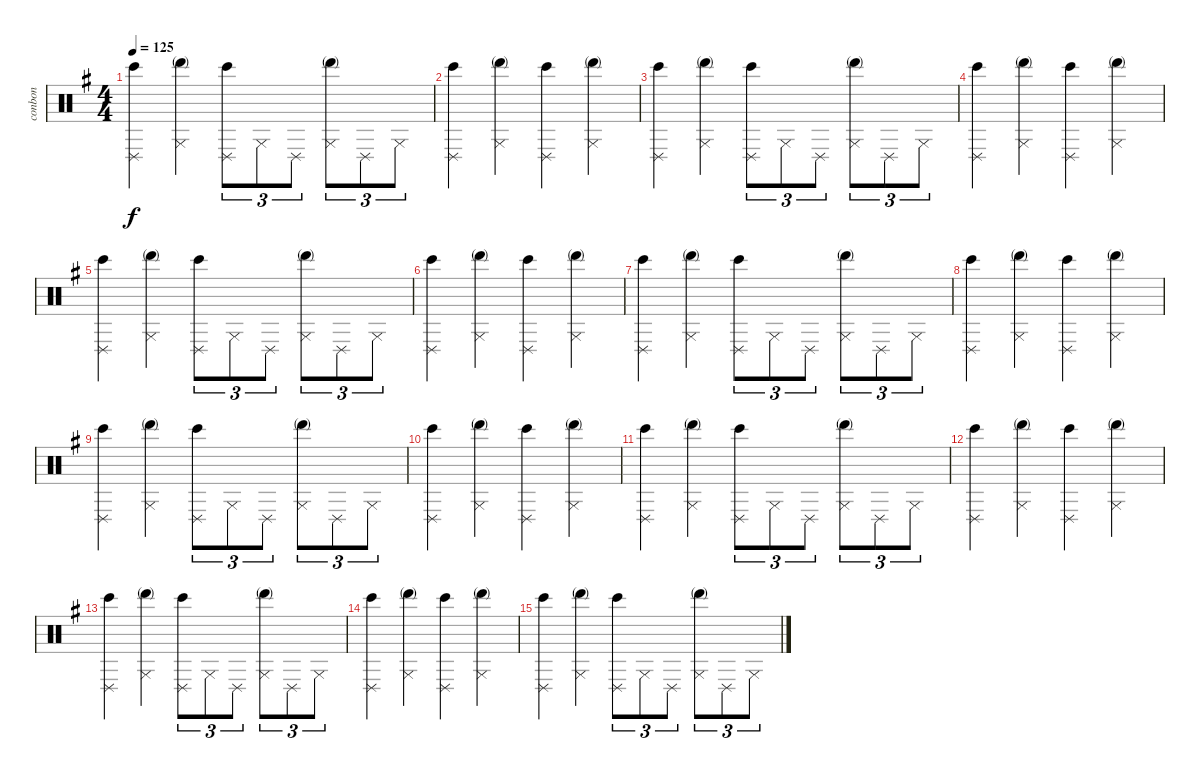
\defaultSystemsLayout 4
\bracketExtendMode groupsimilarinstruments
\otherSystemsTrackNameOrientation horizontal
\track ("Bongos N Congas" "conbon") {instrument percussion}
\staff {score}
\articulation defaults
\ts (4 4)
\tempo 125
\clef neutral
\scale
0.333333
\ks g
("Conga low (slap)"{acc forcenatural} "Bongo High (hit)"{acc forcenatural}).4{dy f beam Down} ("Conga high (slap)"{acc forcenatural} "Hand (mute)"{acc forcenatural}).4{beam Down} ("Conga low (slap)"{acc forcenatural} "Bongo High (hit)"{acc forcenatural}).8{tu (3 2) beam Down} "Conga high (slap)"{acc forcenatural}.8{tu (3 2) beam Down} "Conga low (slap)"{acc forcenatural}.8{tu (3 2) beam Down} ("Conga high (slap)"{acc forcenatural} "Hand (mute)"{acc forcenatural}).8{tu (3 2) beam Down} "Conga low (slap)"{acc forcenatural}.8{tu (3 2) beam Down} "Conga high (slap)"{acc forcenatural}.8{tu (3 2) beam Down} |
\scale
0.333333 ("Conga low (slap)"{acc forcenatural} "Bongo High (hit)"{acc forcenatural}).4{beam Down} ("Conga high (slap)"{acc forcenatural} "Hand (mute)"{acc forcenatural}).4{beam Down} ("Conga low (slap)"{acc forcenatural} "Bongo High (hit)"{acc forcenatural}).4{beam Down} ("Conga high (slap)"{acc forcenatural} "Hand (mute)"{acc forcenatural}).4{beam Down} |
\scale
0.333333 ("Conga low (slap)"{acc forcenatural} "Bongo High (hit)"{acc forcenatural}).4{beam Down} ("Conga high (slap)"{acc forcenatural} "Hand (mute)"{acc forcenatural}).4{beam Down} ("Conga low (slap)"{acc forcenatural} "Bongo High (hit)"{acc forcenatural}).8{tu (3 2) beam Down} "Conga high (slap)"{acc forcenatural}.8{tu (3 2) beam Down} "Conga low (slap)"{acc forcenatural}.8{tu (3 2) beam Down} ("Conga high (slap)"{acc forcenatural} "Hand (mute)"{acc forcenatural}).8{tu (3 2) beam Down} "Conga low (slap)"{acc forcenatural}.8{tu (3 2) beam Down} "Conga high (slap)"{acc forcenatural}.8{tu (3 2) beam Down} |
\scale
0.333333 ("Conga low (slap)"{acc forcenatural} "Bongo High (hit)"{acc forcenatural}).4{beam Down} ("Conga high (slap)"{acc forcenatural} "Hand (mute)"{acc forcenatural}).4{beam Down} ("Conga low (slap)"{acc forcenatural} "Bongo High (hit)"{acc forcenatural}).4{beam Down} ("Conga high (slap)"{acc forcenatural} "Hand (mute)"{acc forcenatural}).4{beam Down} |
\scale
0.333333 ("Conga low (slap)"{acc forcenatural} "Bongo High (hit)"{acc forcenatural}).4{beam Down} ("Conga high (slap)"{acc forcenatural} "Hand (mute)"{acc forcenatural}).4{beam Down} ("Conga low (slap)"{acc forcenatural} "Bongo High (hit)"{acc forcenatural}).8{tu (3 2) beam Down} "Conga high (slap)"{acc forcenatural}.8{tu (3 2) beam Down} "Conga low (slap)"{acc forcenatural}.8{tu (3 2) beam Down} ("Conga high (slap)"{acc forcenatural} "Hand (mute)"{acc forcenatural}).8{tu (3 2) beam Down} "Conga low (slap)"{acc forcenatural}.8{tu (3 2) beam Down} "Conga high (slap)"{acc forcenatural}.8{tu (3 2) beam Down} |
\scale
0.333333 ("Conga low (slap)"{acc forcenatural} "Bongo High (hit)"{acc forcenatural}).4{beam Down} ("Conga high (slap)"{acc forcenatural} "Hand (mute)"{acc forcenatural}).4{beam Down} ("Conga low (slap)"{acc forcenatural} "Bongo High (hit)"{acc forcenatural}).4{beam Down} ("Conga high (slap)"{acc forcenatural} "Hand (mute)"{acc forcenatural}).4{beam Down} |
\scale
0.333333 ("Conga low (slap)"{acc forcenatural} "Bongo High (hit)"{acc forcenatural}).4{beam Down} ("Conga high (slap)"{acc forcenatural} "Hand (mute)"{acc forcenatural}).4{beam Down} ("Conga low (slap)"{acc forcenatural} "Bongo High (hit)"{acc forcenatural}).8{tu (3 2) beam Down} "Conga high (slap)"{acc forcenatural}.8{tu (3 2) beam Down} "Conga low (slap)"{acc forcenatural}.8{tu (3 2) beam Down} ("Conga high (slap)"{acc forcenatural} "Hand (mute)"{acc forcenatural}).8{tu (3 2) beam Down} "Conga low (slap)"{acc forcenatural}.8{tu (3 2) beam Down} "Conga high (slap)"{acc forcenatural}.8{tu (3 2) beam Down} |
\scale
0.333333 ("Conga low (slap)"{acc forcenatural} "Bongo High (hit)"{acc forcenatural}).4{beam Down} ("Conga high (slap)"{acc forcenatural} "Hand (mute)"{acc forcenatural}).4{beam Down} ("Conga low (slap)"{acc forcenatural} "Bongo High (hit)"{acc forcenatural}).4{beam Down} ("Conga high (slap)"{acc forcenatural} "Hand (mute)"{acc forcenatural}).4{beam Down} |
\scale
0.333333 ("Conga low (slap)"{acc forcenatural} "Bongo High (hit)"{acc forcenatural}).4{beam Down} ("Conga high (slap)"{acc forcenatural} "Hand (mute)"{acc forcenatural}).4{beam Down} ("Conga low (slap)"{acc forcenatural} "Bongo High (hit)"{acc forcenatural}).8{tu (3 2) beam Down} "Conga high (slap)"{acc forcenatural}.8{tu (3 2) beam Down} "Conga low (slap)"{acc forcenatural}.8{tu (3 2) beam Down} ("Conga high (slap)"{acc forcenatural} "Hand (mute)"{acc forcenatural}).8{tu (3 2) beam Down} "Conga low (slap)"{acc forcenatural}.8{tu (3 2) beam Down} "Conga high (slap)"{acc forcenatural}.8{tu (3 2) beam Down} |
\scale
0.333333 ("Conga low (slap)"{acc forcenatural} "Bongo High (hit)"{acc forcenatural}).4{beam Down} ("Conga high (slap)"{acc forcenatural} "Hand (mute)"{acc forcenatural}).4{beam Down} ("Conga low (slap)"{acc forcenatural} "Bongo High (hit)"{acc forcenatural}).4{beam Down} ("Conga high (slap)"{acc forcenatural} "Hand (mute)"{acc forcenatural}).4{beam Down} |
\scale
0.333333 ("Conga low (slap)"{acc forcenatural} "Bongo High (hit)"{acc forcenatural}).4{beam Down} ("Conga high (slap)"{acc forcenatural} "Hand (mute)"{acc forcenatural}).4{beam Down} ("Conga low (slap)"{acc forcenatural} "Bongo High (hit)"{acc forcenatural}).8{tu (3 2) beam Down} "Conga high (slap)"{acc forcenatural}.8{tu (3 2) beam Down} "Conga low (slap)"{acc forcenatural}.8{tu (3 2) beam Down} ("Conga high (slap)"{acc forcenatural} "Hand (mute)"{acc forcenatural}).8{tu (3 2) beam Down} "Conga low (slap)"{acc forcenatural}.8{tu (3 2) beam Down} "Conga high (slap)"{acc forcenatural}.8{tu (3 2) beam Down} |
\scale
0.333333 ("Conga low (slap)"{acc forcenatural} "Bongo High (hit)"{acc forcenatural}).4{beam Down} ("Conga high (slap)"{acc forcenatural} "Hand (mute)"{acc forcenatural}).4{beam Down} ("Conga low (slap)"{acc forcenatural} "Bongo High (hit)"{acc forcenatural}).4{beam Down} ("Conga high (slap)"{acc forcenatural} "Hand (mute)"{acc forcenatural}).4{beam Down} |
\scale
0.333333 ("Conga low (slap)"{acc forcenatural} "Bongo High (hit)"{acc forcenatural}).4{beam Down} ("Conga high (slap)"{acc forcenatural} "Hand (mute)"{acc forcenatural}).4{beam Down} ("Conga low (slap)"{acc forcenatural} "Bongo High (hit)"{acc forcenatural}).8{tu (3 2) beam Down} "Conga high (slap)"{acc forcenatural}.8{tu (3 2) beam Down} "Conga low (slap)"{acc forcenatural}.8{tu (3 2) beam Down} ("Conga high (slap)"{acc forcenatural} "Hand (mute)"{acc forcenatural}).8{tu (3 2) beam Down} "Conga low (slap)"{acc forcenatural}.8{tu (3 2) beam Down} "Conga high (slap)"{acc forcenatural}.8{tu (3 2) beam Down} |
\scale
0.333333 ("Conga low (slap)"{acc forcenatural} "Bongo High (hit)"{acc forcenatural}).4{beam Down} ("Conga high (slap)"{acc forcenatural} "Hand (mute)"{acc forcenatural}).4{beam Down} ("Conga low (slap)"{acc forcenatural} "Bongo High (hit)"{acc forcenatural}).4{beam Down} ("Conga high (slap)"{acc forcenatural} "Hand (mute)"{acc forcenatural}).4{beam Down} |
\scale
0.333333 ("Conga low (slap)"{acc forcenatural} "Bongo High (hit)"{acc forcenatural}).4{beam Down} ("Conga high (slap)"{acc forcenatural} "Hand (mute)"{acc forcenatural}).4{beam Down} ("Conga low (slap)"{acc forcenatural} "Bongo High (hit)"{acc forcenatural}).8{tu (3 2) beam Down} "Conga high (slap)"{acc forcenatural}.8{tu (3 2) beam Down} "Conga low (slap)"{acc forcenatural}.8{tu (3 2) beam Down} ("Conga high (slap)"{acc forcenatural} "Hand (mute)"{acc forcenatural}).8{tu (3 2) beam Down} "Conga low (slap)"{acc forcenatural}.8{tu (3 2) beam Down} "Conga high (slap)"{acc forcenatural}.8{tu (3 2) beam Down} |
\scale
0.333333
